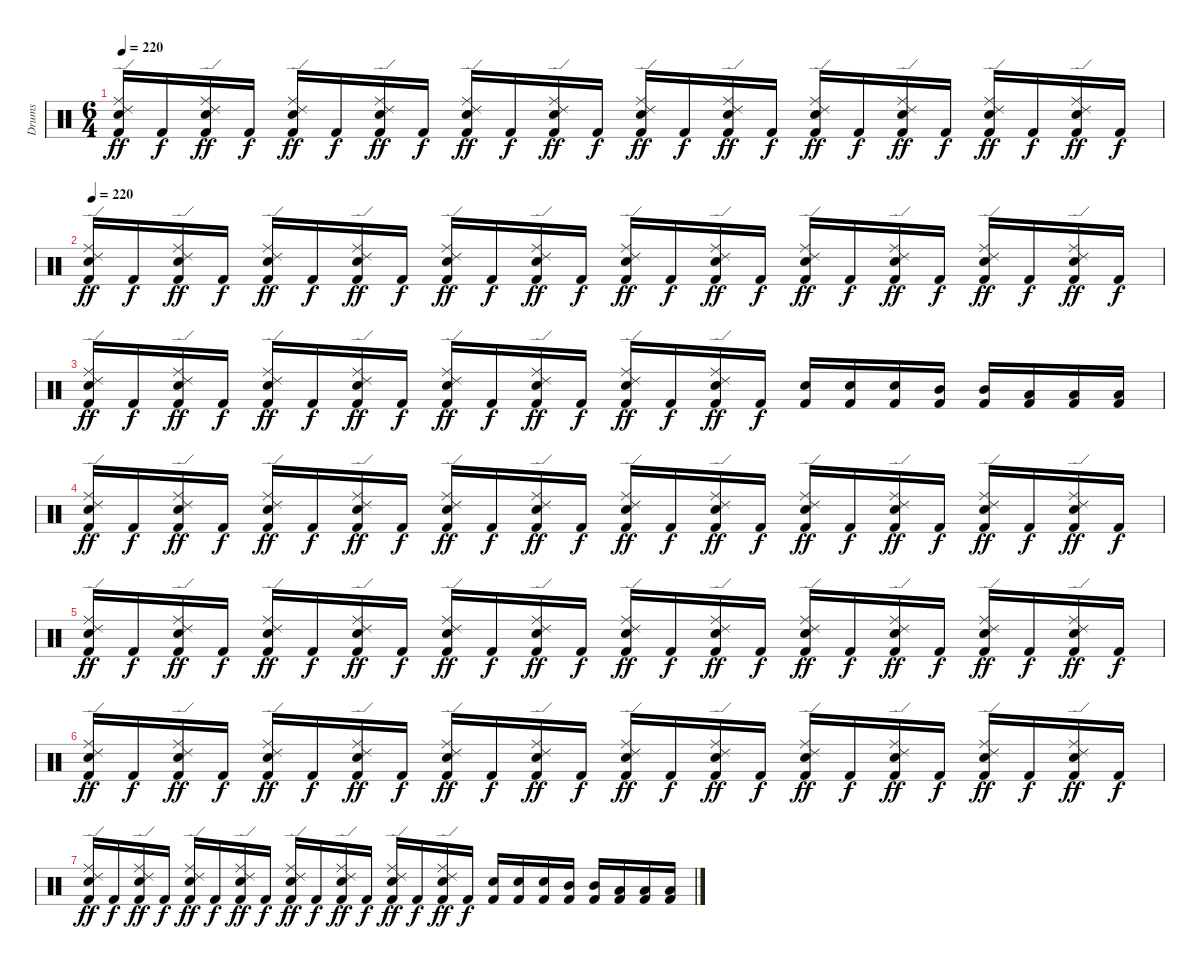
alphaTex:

\track ("Drums" "Drums") {instrument percussion}
\staff {score}
\articulation defaults
\ts (6 4)
\tempo 220
\clef neutral
\ks c
("Ride (edge) 2" "Ride (middle)" "Snare (hit) 2" "Kick (hit) 2").16{dy ff} "Kick (hit) 2".16{dy f} ("Ride (edge) 2" "Ride (middle)" "Snare (hit) 2" "Kick (hit) 2").16{dy ff} "Kick (hit) 2".16{dy f} ("Ride (edge) 2" "Ride (middle)" "Snare (hit) 2" "Kick (hit) 2").16{dy ff} "Kick (hit) 2".16{dy f} ("Ride (edge) 2" "Ride (middle)" "Snare (hit) 2" "Kick (hit) 2").16{dy ff} "Kick (hit) 2".16{dy f} ("Ride (edge) 2" "Ride (middle)" "Snare (hit) 2" "Kick (hit) 2").16{dy ff} "Kick (hit) 2".16{dy f} ("Ride (edge) 2" "Ride (middle)" "Snare (hit) 2" "Kick (hit) 2").16{dy ff} "Kick (hit) 2".16{dy f} ("Ride (edge) 2" "Ride (middle)" "Snare (hit) 2" "Kick (hit) 2").16{dy ff} "Kick (hit) 2".16{dy f} ("Ride (edge) 2" "Ride (middle)" "Snare (hit) 2" "Kick (hit) 2").16{dy ff} "Kick (hit) 2".16{dy f} ("Ride (edge) 2" "Ride (middle)" "Snare (hit) 2" "Kick (hit) 2").16{dy ff} "Kick (hit) 2".16{dy f} ("Ride (edge) 2" "Ride (middle)" "Snare (hit) 2" "Kick (hit) 2").16{dy ff} "Kick (hit) 2".16{dy f} ("Ride (edge) 2" "Ride (middle)" "Snare (hit) 2" "Kick (hit) 2").16{dy ff} "Kick (hit) 2".16{dy f} ("Ride (edge) 2" "Ride (middle)" "Snare (hit) 2" "Kick (hit) 2").16{dy ff} "Kick (hit) 2".16{dy f} |
\tempo 220
("Ride (edge) 2" "Ride (middle)" "Snare (hit) 2" "Kick (hit) 2").16{dy ff} "Kick (hit) 2".16{dy f} ("Ride (edge) 2" "Ride (middle)" "Snare (hit) 2" "Kick (hit) 2").16{dy ff} "Kick (hit) 2".16{dy f} ("Ride (edge) 2" "Ride (middle)" "Snare (hit) 2" "Kick (hit) 2").16{dy ff} "Kick (hit) 2".16{dy f} ("Ride (edge) 2" "Ride (middle)" "Snare (hit) 2" "Kick (hit) 2").16{dy ff} "Kick (hit) 2".16{dy f} ("Ride (edge) 2" "Ride (middle)" "Snare (hit) 2" "Kick (hit) 2").16{dy ff} "Kick (hit) 2".16{dy f} ("Ride (edge) 2" "Ride (middle)" "Snare (hit) 2" "Kick (hit) 2").16{dy ff} "Kick (hit) 2".16{dy f} ("Ride (edge) 2" "Ride (middle)" "Snare (hit) 2" "Kick (hit) 2").16{dy ff} "Kick (hit) 2".16{dy f} ("Ride (edge) 2" "Ride (middle)" "Snare (hit) 2" "Kick (hit) 2").16{dy ff} "Kick (hit) 2".16{dy f} ("Ride (edge) 2" "Ride (middle)" "Snare (hit) 2" "Kick (hit) 2").16{dy ff} "Kick (hit) 2".16{dy f} ("Ride (edge) 2" "Ride (middle)" "Snare (hit) 2" "Kick (hit) 2").16{dy ff} "Kick (hit) 2".16{dy f} ("Ride (edge) 2" "Ride (middle)" "Snare (hit) 2" "Kick (hit) 2").16{dy ff} "Kick (hit) 2".16{dy f} ("Ride (edge) 2" "Ride (middle)" "Snare (hit) 2" "Kick (hit) 2").16{dy ff} "Kick (hit) 2".16{dy f} |
("Ride (edge) 2" "Ride (middle)" "Snare (hit) 2" "Kick (hit) 2").16{dy ff} "Kick (hit) 2".16{dy f} ("Ride (edge) 2" "Ride (middle)" "Snare (hit) 2" "Kick (hit) 2").16{dy ff} "Kick (hit) 2".16{dy f} ("Ride (edge) 2" "Ride (middle)" "Snare (hit) 2" "Kick (hit) 2").16{dy ff} "Kick (hit) 2".16{dy f} ("Ride (edge) 2" "Ride (middle)" "Snare (hit) 2" "Kick (hit) 2").16{dy ff} "Kick (hit) 2".16{dy f} ("Ride (edge) 2" "Ride (middle)" "Snare (hit) 2" "Kick (hit) 2").16{dy ff} "Kick (hit) 2".16{dy f} ("Ride (edge) 2" "Ride (middle)" "Snare (hit) 2" "Kick (hit) 2").16{dy ff} "Kick (hit) 2".16{dy f} ("Ride (edge) 2" "Ride (middle)" "Snare (hit) 2" "Kick (hit) 2").16{dy ff} "Kick (hit) 2".16{dy f} ("Ride (edge) 2" "Ride (middle)" "Snare (hit) 2" "Kick (hit) 2").16{dy ff} "Kick (hit) 2".16{dy f} ("Snare (hit) 2" "Kick (hit) 2").16 ("Snare (hit) 2" "Kick (hit) 2").16 ("Snare (hit) 2" "Kick (hit) 2").16 ("Mid Tom (hit)" "Kick (hit) 2").16 ("Mid Tom (hit)" "Kick (hit) 2").16 ("Low Tom (hit)" "Kick (hit) 2").16 ("Low Tom (hit)" "Kick (hit) 2").16 ("Low Tom (hit)" "Kick (hit) 2").16 |
("Ride (edge) 2" "Ride (middle)" "Snare (hit) 2" "Kick (hit) 2").16{dy ff} "Kick (hit) 2".16{dy f} ("Ride (edge) 2" "Ride (middle)" "Snare (hit) 2" "Kick (hit) 2").16{dy ff} "Kick (hit) 2".16{dy f} ("Ride (edge) 2" "Ride (middle)" "Snare (hit) 2" "Kick (hit) 2").16{dy ff} "Kick (hit) 2".16{dy f} ("Ride (edge) 2" "Ride (middle)" "Snare (hit) 2" "Kick (hit) 2").16{dy ff} "Kick (hit) 2".16{dy f} ("Ride (edge) 2" "Ride (middle)" "Snare (hit) 2" "Kick (hit) 2").16{dy ff} "Kick (hit) 2".16{dy f} ("Ride (edge) 2" "Ride (middle)" "Snare (hit) 2" "Kick (hit) 2").16{dy ff} "Kick (hit) 2".16{dy f} ("Ride (edge) 2" "Ride (middle)" "Snare (hit) 2" "Kick (hit) 2").16{dy ff} "Kick (hit) 2".16{dy f} ("Ride (edge) 2" "Ride (middle)" "Snare (hit) 2" "Kick (hit) 2").16{dy ff} "Kick (hit) 2".16{dy f} ("Ride (edge) 2" "Ride (middle)" "Snare (hit) 2" "Kick (hit) 2").16{dy ff} "Kick (hit) 2".16{dy f} ("Ride (edge) 2" "Ride (middle)" "Snare (hit) 2" "Kick (hit) 2").16{dy ff} "Kick (hit) 2".16{dy f} ("Ride (edge) 2" "Ride (middle)" "Snare (hit) 2" "Kick (hit) 2").16{dy ff} "Kick (hit) 2".16{dy f} ("Ride (edge) 2" "Ride (middle)" "Snare (hit) 2" "Kick (hit) 2").16{dy ff} "Kick (hit) 2".16{dy f} |
("Ride (edge) 2" "Ride (middle)" "Snare (hit) 2" "Kick (hit) 2").16{dy ff} "Kick (hit) 2".16{dy f} ("Ride (edge) 2" "Ride (middle)" "Snare (hit) 2" "Kick (hit) 2").16{dy ff} "Kick (hit) 2".16{dy f} ("Ride (edge) 2" "Ride (middle)" "Snare (hit) 2" "Kick (hit) 2").16{dy ff} "Kick (hit) 2".16{dy f} ("Ride (edge) 2" "Ride (middle)" "Snare (hit) 2" "Kick (hit) 2").16{dy ff} "Kick (hit) 2".16{dy f} ("Ride (edge) 2" "Ride (middle)" "Snare (hit) 2" "Kick (hit) 2").16{dy ff} "Kick (hit) 2".16{dy f} ("Ride (edge) 2" "Ride (middle)" "Snare (hit) 2" "Kick (hit) 2").16{dy ff} "Kick (hit) 2".16{dy f} ("Ride (edge) 2" "Ride (middle)" "Snare (hit) 2" "Kick (hit) 2").16{dy ff} "Kick (hit) 2".16{dy f} ("Ride (edge) 2" "Ride (middle)" "Snare (hit) 2" "Kick (hit) 2").16{dy ff} "Kick (hit) 2".16{dy f} ("Ride (edge) 2" "Ride (middle)" "Snare (hit) 2" "Kick (hit) 2").16{dy ff} "Kick (hit) 2".16{dy f} ("Ride (edge) 2" "Ride (middle)" "Snare (hit) 2" "Kick (hit) 2").16{dy ff} "Kick (hit) 2".16{dy f} ("Ride (edge) 2" "Ride (middle)" "Snare (hit) 2" "Kick (hit) 2").16{dy ff} "Kick (hit) 2".16{dy f} ("Ride (edge) 2" "Ride (middle)" "Snare (hit) 2" "Kick (hit) 2").16{dy ff} "Kick (hit) 2".16{dy f} |
("Ride (edge) 2" "Ride (middle)" "Snare (hit) 2" "Kick (hit) 2").16{dy ff} "Kick (hit) 2".16{dy f} ("Ride (edge) 2" "Ride (middle)" "Snare (hit) 2" "Kick (hit) 2").16{dy ff} "Kick (hit) 2".16{dy f} ("Ride (edge) 2" "Ride (middle)" "Snare (hit) 2" "Kick (hit) 2").16{dy ff} "Kick (hit) 2".16{dy f} ("Ride (edge) 2" "Ride (middle)" "Snare (hit) 2" "Kick (hit) 2").16{dy ff} "Kick (hit) 2".16{dy f} ("Ride (edge) 2" "Ride (middle)" "Snare (hit) 2" "Kick (hit) 2").16{dy ff} "Kick (hit) 2".16{dy f} ("Ride (edge) 2" "Ride (middle)" "Snare (hit) 2" "Kick (hit) 2").16{dy ff} "Kick (hit) 2".16{dy f} ("Ride (edge) 2" "Ride (middle)" "Snare (hit) 2" "Kick (hit) 2").16{dy ff} "Kick (hit) 2".16{dy f} ("Ride (edge) 2" "Ride (middle)" "Snare (hit) 2" "Kick (hit) 2").16{dy ff} "Kick (hit) 2".16{dy f} ("Ride (edge) 2" "Ride (middle)" "Snare (hit) 2" "Kick (hit) 2").16{dy ff} "Kick (hit) 2".16{dy f} ("Ride (edge) 2" "Ride (middle)" "Snare (hit) 2" "Kick (hit) 2").16{dy ff} "Kick (hit) 2".16{dy f} ("Ride (edge) 2" "Ride (middle)" "Snare (hit) 2" "Kick (hit) 2").16{dy ff} "Kick (hit) 2".16{dy f} ("Ride (edge) 2" "Ride (middle)" "Snare (hit) 2" "Kick (hit) 2").16{dy ff} "Kick (hit) 2".16{dy f} |
("Ride (edge) 2" "Ride (middle)" "Snare (hit) 2" "Kick (hit) 2").16{dy ff} "Kick (hit) 2".16{dy f} ("Ride (edge) 2" "Ride (middle)" "Snare (hit) 2" "Kick (hit) 2").16{dy ff} "Kick (hit) 2".16{dy f} ("Ride (edge) 2" "Ride (middle)" "Snare (hit) 2" "Kick (hit) 2").16{dy ff} "Kick (hit) 2".16{dy f} ("Ride (edge) 2" "Ride (middle)" "Snare (hit) 2" "Kick (hit) 2").16{dy ff} "Kick (hit) 2".16{dy f} ("Ride (edge) 2" "Ride (middle)" "Snare (hit) 2" "Kick (hit) 2").16{dy ff} "Kick (hit) 2".16{dy f} ("Ride (edge) 2" "Ride (middle)" "Snare (hit) 2" "Kick (hit) 2").16{dy ff} "Kick (hit) 2".16{dy f} ("Ride (edge) 2" "Ride (middle)" "Snare (hit) 2" "Kick (hit) 2").16{dy ff} "Kick (hit) 2".16{dy f} ("Ride (edge) 2" "Ride (middle)" "Snare (hit) 2" "Kick (hit) 2").16{dy ff} "Kick (hit) 2".16{dy f} ("Snare (hit) 2" "Kick (hit) 2").16 ("Snare (hit) 2" "Kick (hit) 2").16 ("Snare (hit) 2" "Kick (hit) 2").16 ("Mid Tom (hit)" "Kick (hit) 2").16 ("Mid Tom (hit)" "Kick (hit) 2").16 ("Low Tom (hit)" "Kick (hit) 2").16 ("Low Tom (hit)" "Kick (hit) 2").16 ("Low Tom (hit)" "Kick (hit) 2").16
